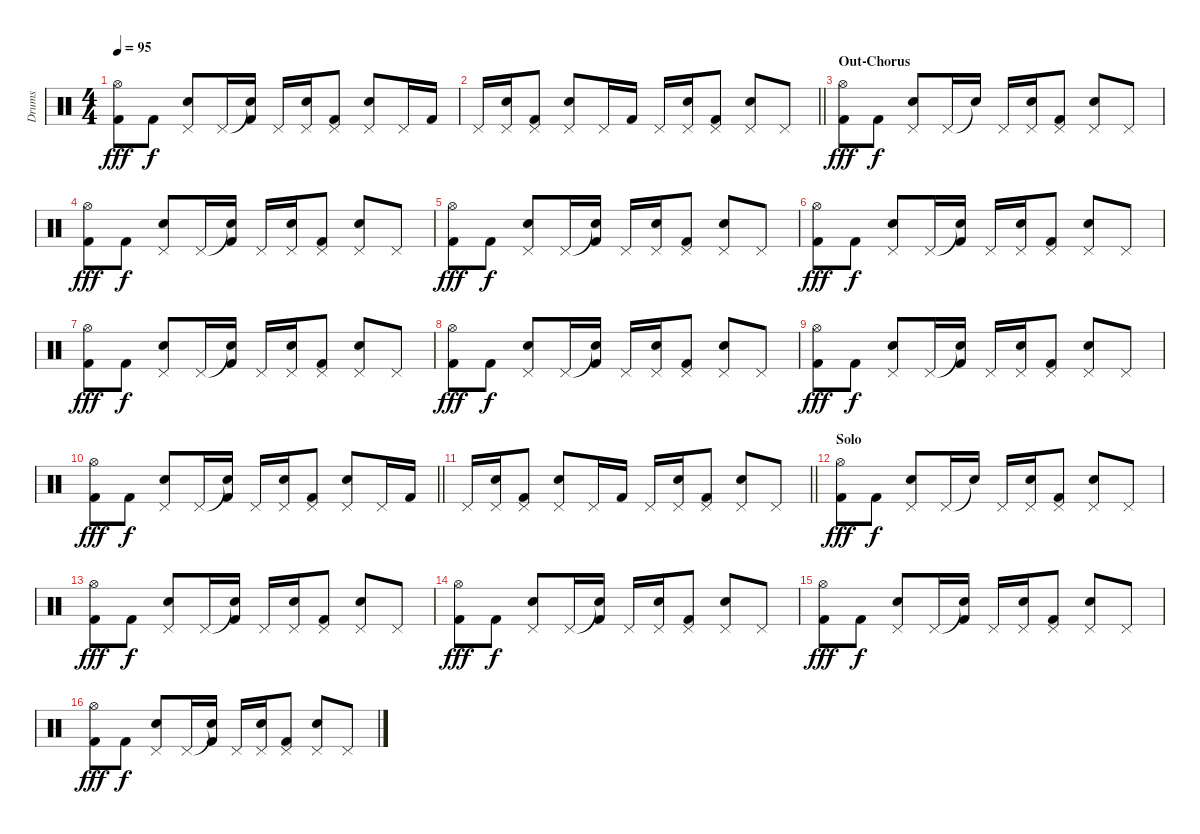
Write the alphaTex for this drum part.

\track ("Drums" "Drums") {instrument percussion}
\staff {score}
\articulation defaults
\ts (4 4)
\tempo 95
\clef neutral
\ks c
("Hi-Hat (open)" "Kick (hit) 2").8{dy fff} "Kick (hit) 2".8{dy f} ("Pedal Hi-Hat (hit)" "Snare (hit) 2").8 "Pedal Hi-Hat (hit)".16 ("Snare (hit)"{t} "Kick (hit) 2").16 "Pedal Hi-Hat (hit)".16 ("Pedal Hi-Hat (hit)" "Snare (hit) 2").16 ("Pedal Hi-Hat (hit)" "Kick (hit) 2").8 ("Pedal Hi-Hat (hit)" "Snare (hit) 2").8 "Pedal Hi-Hat (hit)".16 "Kick (hit) 2".16 |
\barLineRight lightlight "Pedal Hi-Hat (hit)".16
("Pedal Hi-Hat (hit)" "Snare (hit) 2").16 ("Pedal Hi-Hat (hit)" "Kick (hit) 2").8 ("Pedal Hi-Hat (hit)" "Snare (hit) 2").8 "Pedal Hi-Hat (hit)".16 "Kick (hit) 2".16 "Pedal Hi-Hat (hit)".16 ("Pedal Hi-Hat (hit)" "Snare (hit) 2").16 ("Pedal Hi-Hat (hit)" "Kick (hit) 2").8 ("Pedal Hi-Hat (hit)" "Snare (hit) 2").8 "Pedal Hi-Hat (hit)".8 |
\section ("" "Out-Chorus")
("Hi-Hat (open)" "Kick (hit) 2").8{dy fff} "Kick (hit) 2".8{dy f} ("Pedal Hi-Hat (hit)" "Snare (hit) 2").8 "Pedal Hi-Hat (hit)".16 "Snare (hit)"{t}.16 "Pedal Hi-Hat (hit)".16 ("Pedal Hi-Hat (hit)" "Snare (hit) 2").16 ("Pedal Hi-Hat (hit)" "Kick (hit) 2").8 ("Pedal Hi-Hat (hit)" "Snare (hit) 2").8 "Pedal Hi-Hat (hit)".8 |
("Hi-Hat (open)" "Kick (hit) 2").8{dy fff} "Kick (hit) 2".8{dy f} ("Pedal Hi-Hat (hit)" "Snare (hit) 2").8 "Pedal Hi-Hat (hit)".16 ("Snare (hit)"{t} "Kick (hit) 2").16 "Pedal Hi-Hat (hit)".16 ("Pedal Hi-Hat (hit)" "Snare (hit) 2").16 ("Pedal Hi-Hat (hit)" "Kick (hit) 2").8 ("Pedal Hi-Hat (hit)" "Snare (hit) 2").8 "Pedal Hi-Hat (hit)".8 |
("Hi-Hat (open)" "Kick (hit) 2").8{dy fff} "Kick (hit) 2".8{dy f} ("Pedal Hi-Hat (hit)" "Snare (hit) 2").8 "Pedal Hi-Hat (hit)".16 ("Snare (hit)"{t} "Kick (hit) 2").16 "Pedal Hi-Hat (hit)".16 ("Pedal Hi-Hat (hit)" "Snare (hit) 2").16 ("Pedal Hi-Hat (hit)" "Kick (hit) 2").8 ("Pedal Hi-Hat (hit)" "Snare (hit) 2").8 "Pedal Hi-Hat (hit)".8 |
("Hi-Hat (open)" "Kick (hit) 2").8{dy fff} "Kick (hit) 2".8{dy f} ("Pedal Hi-Hat (hit)" "Snare (hit) 2").8 "Pedal Hi-Hat (hit)".16 ("Snare (hit)"{t} "Kick (hit) 2").16 "Pedal Hi-Hat (hit)".16 ("Pedal Hi-Hat (hit)" "Snare (hit) 2").16 ("Pedal Hi-Hat (hit)" "Kick (hit) 2").8 ("Pedal Hi-Hat (hit)" "Snare (hit) 2").8 "Pedal Hi-Hat (hit)".8 |
("Hi-Hat (open)" "Kick (hit) 2").8{dy fff} "Kick (hit) 2".8{dy f} ("Pedal Hi-Hat (hit)" "Snare (hit) 2").8 "Pedal Hi-Hat (hit)".16 ("Snare (hit)"{t} "Kick (hit) 2").16 "Pedal Hi-Hat (hit)".16 ("Pedal Hi-Hat (hit)" "Snare (hit) 2").16 ("Pedal Hi-Hat (hit)" "Kick (hit) 2").8 ("Pedal Hi-Hat (hit)" "Snare (hit) 2").8 "Pedal Hi-Hat (hit)".8 |
("Hi-Hat (open)" "Kick (hit) 2").8{dy fff} "Kick (hit) 2".8{dy f} ("Pedal Hi-Hat (hit)" "Snare (hit) 2").8 "Pedal Hi-Hat (hit)".16 ("Snare (hit)"{t} "Kick (hit) 2").16 "Pedal Hi-Hat (hit)".16 ("Pedal Hi-Hat (hit)" "Snare (hit) 2").16 ("Pedal Hi-Hat (hit)" "Kick (hit) 2").8 ("Pedal Hi-Hat (hit)" "Snare (hit) 2").8 "Pedal Hi-Hat (hit)".8 |
("Hi-Hat (open)" "Kick (hit) 2").8{dy fff} "Kick (hit) 2".8{dy f} ("Pedal Hi-Hat (hit)" "Snare (hit) 2").8 "Pedal Hi-Hat (hit)".16 ("Snare (hit)"{t} "Kick (hit) 2").16 "Pedal Hi-Hat (hit)".16 ("Pedal Hi-Hat (hit)" "Snare (hit) 2").16 ("Pedal Hi-Hat (hit)" "Kick (hit) 2").8 ("Pedal Hi-Hat (hit)" "Snare (hit) 2").8 "Pedal Hi-Hat (hit)".8 |
\barLineRight lightlight
("Hi-Hat (open)" "Kick (hit) 2").8{dy fff} "Kick (hit) 2".8{dy f} ("Pedal Hi-Hat (hit)" "Snare (hit) 2").8 "Pedal Hi-Hat (hit)".16 ("Snare (hit)"{t} "Kick (hit) 2").16 "Pedal Hi-Hat (hit)".16 ("Pedal Hi-Hat (hit)" "Snare (hit) 2").16 ("Pedal Hi-Hat (hit)" "Kick (hit) 2").8 ("Pedal Hi-Hat (hit)" "Snare (hit) 2").8 "Pedal Hi-Hat (hit)".16 "Kick (hit) 2".16 |
\barLineRight lightlight "Pedal Hi-Hat (hit)".16
("Pedal Hi-Hat (hit)" "Snare (hit) 2").16 ("Pedal Hi-Hat (hit)" "Kick (hit) 2").8 ("Pedal Hi-Hat (hit)" "Snare (hit) 2").8 "Pedal Hi-Hat (hit)".16 "Kick (hit) 2".16 "Pedal Hi-Hat (hit)".16 ("Pedal Hi-Hat (hit)" "Snare (hit) 2").16 ("Pedal Hi-Hat (hit)" "Kick (hit) 2").8{volume 5} ("Pedal Hi-Hat (hit)" "Snare (hit) 2").8{volume 12} "Pedal Hi-Hat (hit)".8{volume 4} |
\section ("" "Solo")
("Hi-Hat (open)" "Kick (hit) 2").8{dy fff volume 12} "Kick (hit) 2".8{dy f} ("Pedal Hi-Hat (hit)" "Snare (hit) 2").8 "Pedal Hi-Hat (hit)".16 "Snare (hit)"{t}.16 "Pedal Hi-Hat (hit)".16 ("Pedal Hi-Hat (hit)" "Snare (hit) 2").16 ("Pedal Hi-Hat (hit)" "Kick (hit) 2").8 ("Pedal Hi-Hat (hit)" "Snare (hit) 2").8 "Pedal Hi-Hat (hit)".8 |
("Hi-Hat (open)" "Kick (hit) 2").8{dy fff} "Kick (hit) 2".8{dy f} ("Pedal Hi-Hat (hit)" "Snare (hit) 2").8 "Pedal Hi-Hat (hit)".16 ("Snare (hit)"{t} "Kick (hit) 2").16 "Pedal Hi-Hat (hit)".16 ("Pedal Hi-Hat (hit)" "Snare (hit) 2").16 ("Pedal Hi-Hat (hit)" "Kick (hit) 2").8 ("Pedal Hi-Hat (hit)" "Snare (hit) 2").8 "Pedal Hi-Hat (hit)".8 |
("Hi-Hat (open)" "Kick (hit) 2").8{dy fff} "Kick (hit) 2".8{dy f} ("Pedal Hi-Hat (hit)" "Snare (hit) 2").8 "Pedal Hi-Hat (hit)".16 ("Snare (hit)"{t} "Kick (hit) 2").16 "Pedal Hi-Hat (hit)".16 ("Pedal Hi-Hat (hit)" "Snare (hit) 2").16 ("Pedal Hi-Hat (hit)" "Kick (hit) 2").8 ("Pedal Hi-Hat (hit)" "Snare (hit) 2").8 "Pedal Hi-Hat (hit)".8 |
("Hi-Hat (open)" "Kick (hit) 2").8{dy fff} "Kick (hit) 2".8{dy f} ("Pedal Hi-Hat (hit)" "Snare (hit) 2").8 "Pedal Hi-Hat (hit)".16 ("Snare (hit)"{t} "Kick (hit) 2").16 "Pedal Hi-Hat (hit)".16 ("Pedal Hi-Hat (hit)" "Snare (hit) 2").16 ("Pedal Hi-Hat (hit)" "Kick (hit) 2").8 ("Pedal Hi-Hat (hit)" "Snare (hit) 2").8 "Pedal Hi-Hat (hit)".8 |
("Hi-Hat (open)" "Kick (hit) 2").8{dy fff} "Kick (hit) 2".8{dy f} ("Pedal Hi-Hat (hit)" "Snare (hit) 2").8 "Pedal Hi-Hat (hit)".16 ("Snare (hit)"{t} "Kick (hit) 2").16 "Pedal Hi-Hat (hit)".16 ("Pedal Hi-Hat (hit)" "Snare (hit) 2").16 ("Pedal Hi-Hat (hit)" "Kick (hit) 2").8 ("Pedal Hi-Hat (hit)" "Snare (hit) 2").8 "Pedal Hi-Hat (hit)".8
